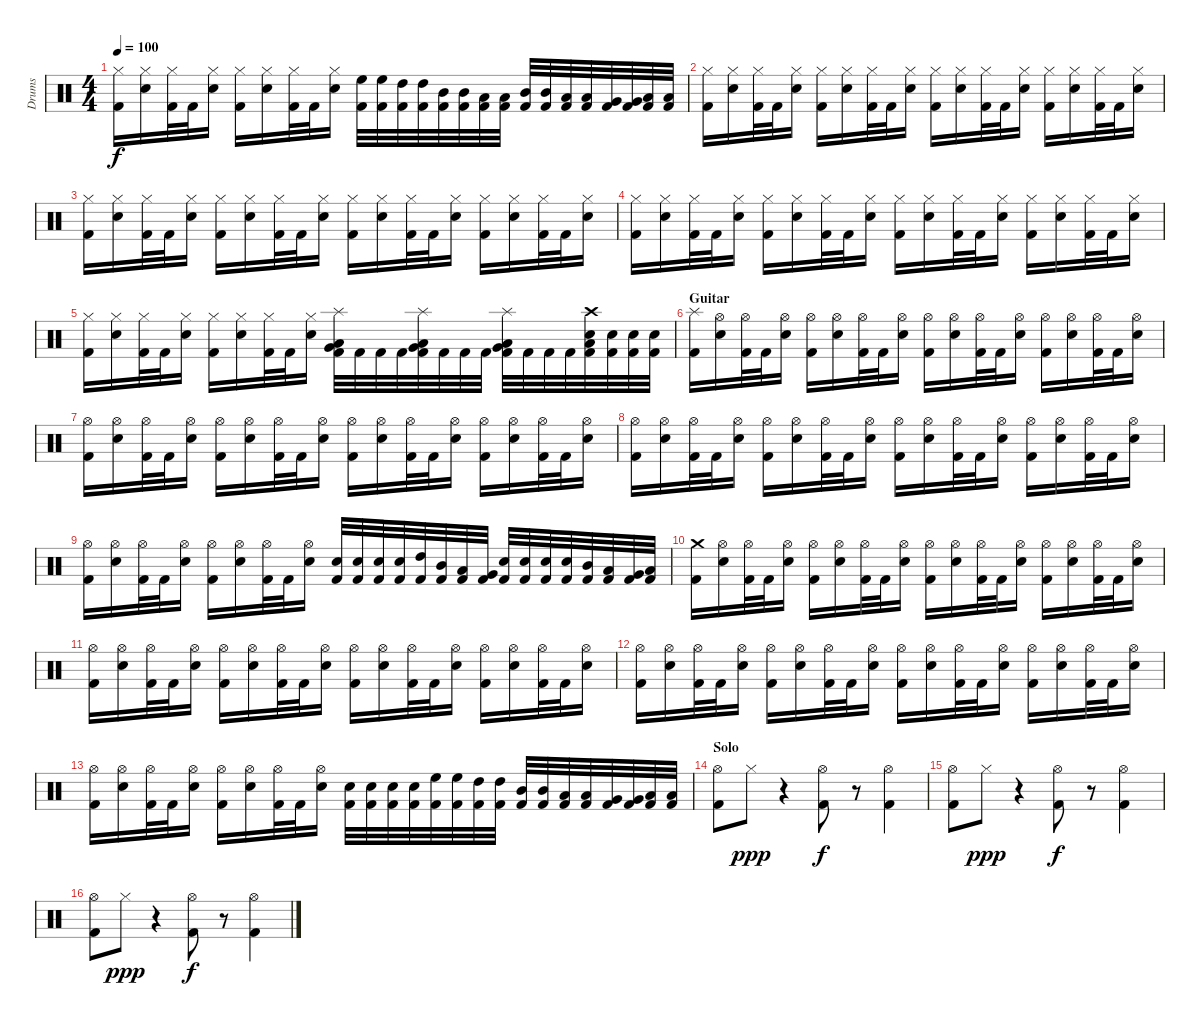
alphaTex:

\track ("Drums" "Drums") {instrument percussion}
\staff {score}
\articulation defaults
\ts (4 4)
\tempo 100
\clef neutral
\ks c
("Kick (hit) 2" "Hi-Hat (closed)").16{dy f} ("Electric Snare (hit)" "Hi-Hat (closed)").16 ("Kick (hit) 2" "Hi-Hat (closed)").32 "Kick (hit) 2".32 ("Electric Snare (hit)" "Hi-Hat (closed)").16 ("Kick (hit) 2" "Hi-Hat (closed)").16 ("Electric Snare (hit)" "Hi-Hat (closed)").16 ("Kick (hit) 2" "Hi-Hat (closed)").32 "Kick (hit) 2".32 ("Electric Snare (hit)" "Hi-Hat (closed)").16 ("Kick (hit) 2" "High Floor Tom (hit)").32 ("Kick (hit) 2" "High Floor Tom (hit)").32 ("Kick (hit) 2" "High Tom (hit)").32 ("Kick (hit) 2" "High Tom (hit)").32 ("Kick (hit) 2" "Mid Tom (hit)").32 ("Kick (hit) 2" "Mid Tom (hit)").32 ("Kick (hit) 2" "Low Tom (hit)").32 ("Kick (hit) 2" "Low Tom (hit)").32 ("Kick (hit) 2" "Mid Tom (hit)").32 ("Kick (hit) 2" "Mid Tom (hit)").32 ("Kick (hit) 2" "Low Tom (hit)").32 ("Kick (hit) 2" "Low Tom (hit)").32 ("Kick (hit) 2" "Very Low Tom (hit)").32 ("Kick (hit) 2" "Very Low Tom (hit)").32 ("Kick (hit) 2" "Low Floor Tom (hit)").32 ("Kick (hit) 2" "Low Floor Tom (hit)").32 |
("Kick (hit) 2" "Hi-Hat (closed)").16 ("Electric Snare (hit)" "Hi-Hat (closed)").16 ("Kick (hit) 2" "Hi-Hat (closed)").32 "Kick (hit) 2".32 ("Electric Snare (hit)" "Hi-Hat (closed)").16 ("Kick (hit) 2" "Hi-Hat (closed)").16 ("Electric Snare (hit)" "Hi-Hat (closed)").16 ("Kick (hit) 2" "Hi-Hat (closed)").32 "Kick (hit) 2".32 ("Electric Snare (hit)" "Hi-Hat (closed)").16 ("Kick (hit) 2" "Hi-Hat (closed)").16 ("Electric Snare (hit)" "Hi-Hat (closed)").16 ("Kick (hit) 2" "Hi-Hat (closed)").32 "Kick (hit) 2".32 ("Electric Snare (hit)" "Hi-Hat (closed)").16 ("Kick (hit) 2" "Hi-Hat (closed)").16 ("Electric Snare (hit)" "Hi-Hat (closed)").16 ("Kick (hit) 2" "Hi-Hat (closed)").32 "Kick (hit) 2".32 ("Electric Snare (hit)" "Hi-Hat (closed)").16 |
("Kick (hit) 2" "Hi-Hat (closed)").16 ("Electric Snare (hit)" "Hi-Hat (closed)").16 ("Kick (hit) 2" "Hi-Hat (closed)").32 "Kick (hit) 2".32 ("Electric Snare (hit)" "Hi-Hat (closed)").16 ("Kick (hit) 2" "Hi-Hat (closed)").16 ("Electric Snare (hit)" "Hi-Hat (closed)").16 ("Kick (hit) 2" "Hi-Hat (closed)").32 "Kick (hit) 2".32 ("Electric Snare (hit)" "Hi-Hat (closed)").16 ("Kick (hit) 2" "Hi-Hat (closed)").16 ("Electric Snare (hit)" "Hi-Hat (closed)").16 ("Kick (hit) 2" "Hi-Hat (closed)").32 "Kick (hit) 2".32 ("Electric Snare (hit)" "Hi-Hat (closed)").16 ("Kick (hit) 2" "Hi-Hat (closed)").16 ("Electric Snare (hit)" "Hi-Hat (closed)").16 ("Kick (hit) 2" "Hi-Hat (closed)").32 "Kick (hit) 2".32 ("Electric Snare (hit)" "Hi-Hat (closed)").16 |
("Kick (hit) 2" "Hi-Hat (closed)").16 ("Electric Snare (hit)" "Hi-Hat (closed)").16 ("Kick (hit) 2" "Hi-Hat (closed)").32 "Kick (hit) 2".32 ("Electric Snare (hit)" "Hi-Hat (closed)").16 ("Kick (hit) 2" "Hi-Hat (closed)").16 ("Electric Snare (hit)" "Hi-Hat (closed)").16 ("Kick (hit) 2" "Hi-Hat (closed)").32 "Kick (hit) 2".32 ("Electric Snare (hit)" "Hi-Hat (closed)").16 ("Kick (hit) 2" "Hi-Hat (closed)").16 ("Electric Snare (hit)" "Hi-Hat (closed)").16 ("Kick (hit) 2" "Hi-Hat (closed)").32 "Kick (hit) 2".32 ("Electric Snare (hit)" "Hi-Hat (closed)").16 ("Kick (hit) 2" "Hi-Hat (closed)").16 ("Electric Snare (hit)" "Hi-Hat (closed)").16 ("Kick (hit) 2" "Hi-Hat (closed)").32 "Kick (hit) 2".32 ("Electric Snare (hit)" "Hi-Hat (closed)").16 |
("Kick (hit) 2" "Hi-Hat (closed)").16 ("Electric Snare (hit)" "Hi-Hat (closed)").16 ("Kick (hit) 2" "Hi-Hat (closed)").32 "Kick (hit) 2".32 ("Electric Snare (hit)" "Hi-Hat (closed)").16 ("Kick (hit) 2" "Hi-Hat (closed)").16 ("Electric Snare (hit)" "Hi-Hat (closed)").16 ("Kick (hit) 2" "Hi-Hat (closed)").32 "Kick (hit) 2".32 ("Electric Snare (hit)" "Hi-Hat (closed)").16 ("Kick (hit) 2" "Low Floor Tom (hit)" "Very Low Tom (hit)" "Splash (hit)").32 "Kick (hit) 2".32 "Kick (hit) 2".32 "Kick (hit) 2".32 ("Kick (hit) 2" "Low Floor Tom (hit)" "Very Low Tom (hit)" "Splash (hit)").32 "Kick (hit) 2".32 "Kick (hit) 2".32 "Kick (hit) 2".32 ("Kick (hit) 2" "Low Floor Tom (hit)" "Very Low Tom (hit)" "Splash (hit)").32 "Kick (hit) 2".32 "Kick (hit) 2".32 "Kick (hit) 2".32 ("Kick (hit) 2" "Electric Snare (hit)" "Low Floor Tom (hit)" "Crash high (hit)").32 ("Kick (hit) 2" "Electric Snare (hit)").32 ("Kick (hit) 2" "Electric Snare (hit)").32 ("Kick (hit) 2" "Electric Snare (hit)").32 |
\section ("" "Guitar ")
("Kick (hit) 2" "Splash (hit)").16 ("Electric Snare (hit)" "Hi-Hat (open)").16 ("Kick (hit) 2" "Hi-Hat (open)").32 "Kick (hit) 2".32 ("Electric Snare (hit)" "Hi-Hat (open)").16 ("Kick (hit) 2" "Hi-Hat (open)").16 ("Electric Snare (hit)" "Hi-Hat (open)").16 ("Kick (hit) 2" "Hi-Hat (open)").32 "Kick (hit) 2".32 ("Electric Snare (hit)" "Hi-Hat (open)").16 ("Kick (hit) 2" "Hi-Hat (open)").16 ("Electric Snare (hit)" "Hi-Hat (open)").16 ("Kick (hit) 2" "Hi-Hat (open)").32 "Kick (hit) 2".32 ("Electric Snare (hit)" "Hi-Hat (open)").16 ("Kick (hit) 2" "Hi-Hat (open)").16 ("Electric Snare (hit)" "Hi-Hat (open)").16 ("Kick (hit) 2" "Hi-Hat (open)").32 "Kick (hit) 2".32 ("Electric Snare (hit)" "Hi-Hat (open)").16 |
("Kick (hit) 2" "Hi-Hat (open)").16 ("Electric Snare (hit)" "Hi-Hat (open)").16 ("Kick (hit) 2" "Hi-Hat (open)").32 "Kick (hit) 2".32 ("Electric Snare (hit)" "Hi-Hat (open)").16 ("Kick (hit) 2" "Hi-Hat (open)").16 ("Electric Snare (hit)" "Hi-Hat (open)").16 ("Kick (hit) 2" "Hi-Hat (open)").32 "Kick (hit) 2".32 ("Electric Snare (hit)" "Hi-Hat (open)").16 ("Kick (hit) 2" "Hi-Hat (open)").16 ("Electric Snare (hit)" "Hi-Hat (open)").16 ("Kick (hit) 2" "Hi-Hat (open)").32 "Kick (hit) 2".32 ("Electric Snare (hit)" "Hi-Hat (open)").16 ("Kick (hit) 2" "Hi-Hat (open)").16 ("Electric Snare (hit)" "Hi-Hat (open)").16 ("Kick (hit) 2" "Hi-Hat (open)").32 "Kick (hit) 2".32 ("Electric Snare (hit)" "Hi-Hat (open)").16 |
("Kick (hit) 2" "Hi-Hat (open)").16 ("Electric Snare (hit)" "Hi-Hat (open)").16 ("Kick (hit) 2" "Hi-Hat (open)").32 "Kick (hit) 2".32 ("Electric Snare (hit)" "Hi-Hat (open)").16 ("Kick (hit) 2" "Hi-Hat (open)").16 ("Electric Snare (hit)" "Hi-Hat (open)").16 ("Kick (hit) 2" "Hi-Hat (open)").32 "Kick (hit) 2".32 ("Electric Snare (hit)" "Hi-Hat (open)").16 ("Kick (hit) 2" "Hi-Hat (open)").16 ("Electric Snare (hit)" "Hi-Hat (open)").16 ("Kick (hit) 2" "Hi-Hat (open)").32 "Kick (hit) 2".32 ("Electric Snare (hit)" "Hi-Hat (open)").16 ("Kick (hit) 2" "Hi-Hat (open)").16 ("Electric Snare (hit)" "Hi-Hat (open)").16 ("Kick (hit) 2" "Hi-Hat (open)").32 "Kick (hit) 2".32 ("Electric Snare (hit)" "Hi-Hat (open)").16 |
("Kick (hit) 2" "Hi-Hat (open)").16 ("Electric Snare (hit)" "Hi-Hat (open)").16 ("Kick (hit) 2" "Hi-Hat (open)").32 "Kick (hit) 2".32 ("Electric Snare (hit)" "Hi-Hat (open)").16 ("Kick (hit) 2" "Hi-Hat (open)").16 ("Electric Snare (hit)" "Hi-Hat (open)").16 ("Kick (hit) 2" "Hi-Hat (open)").32 "Kick (hit) 2".32 ("Electric Snare (hit)" "Hi-Hat (open)").16 ("Kick (hit) 2" "Electric Snare (hit)").32 ("Kick (hit) 2" "Electric Snare (hit)").32 ("Kick (hit) 2" "Electric Snare (hit)").32 ("Kick (hit) 2" "Electric Snare (hit)").32 ("Kick (hit) 2" "High Tom (hit)").32 ("Kick (hit) 2" "Mid Tom (hit)").32 ("Kick (hit) 2" "Low Tom (hit)").32 ("Kick (hit) 2" "Very Low Tom (hit)").32 ("Kick (hit) 2" "Electric Snare (hit)").32 ("Kick (hit) 2" "Electric Snare (hit)").32 ("Kick (hit) 2" "Electric Snare (hit)").32 ("Kick (hit) 2" "Electric Snare (hit)").32 ("Kick (hit) 2" "Mid Tom (hit)").32 ("Kick (hit) 2" "Low Tom (hit)").32 ("Kick (hit) 2" "Very Low Tom (hit)").32 ("Kick (hit) 2" "Low Floor Tom (hit)").32 |
("Kick (hit) 2" "Crash medium (hit)").16 ("Electric Snare (hit)" "Hi-Hat (open)").16 ("Kick (hit) 2" "Hi-Hat (open)").32 "Kick (hit) 2".32 ("Electric Snare (hit)" "Hi-Hat (open)").16 ("Kick (hit) 2" "Hi-Hat (open)").16 ("Electric Snare (hit)" "Hi-Hat (open)").16 ("Kick (hit) 2" "Hi-Hat (open)").32 "Kick (hit) 2".32 ("Electric Snare (hit)" "Hi-Hat (open)").16 ("Kick (hit) 2" "Hi-Hat (open)").16 ("Electric Snare (hit)" "Hi-Hat (open)").16 ("Kick (hit) 2" "Hi-Hat (open)").32 "Kick (hit) 2".32 ("Electric Snare (hit)" "Hi-Hat (open)").16 ("Kick (hit) 2" "Hi-Hat (open)").16 ("Electric Snare (hit)" "Hi-Hat (open)").16 ("Kick (hit) 2" "Hi-Hat (open)").32 "Kick (hit) 2".32 ("Electric Snare (hit)" "Hi-Hat (open)").16 |
("Kick (hit) 2" "Hi-Hat (open)").16 ("Electric Snare (hit)" "Hi-Hat (open)").16 ("Kick (hit) 2" "Hi-Hat (open)").32 "Kick (hit) 2".32 ("Electric Snare (hit)" "Hi-Hat (open)").16 ("Kick (hit) 2" "Hi-Hat (open)").16 ("Electric Snare (hit)" "Hi-Hat (open)").16 ("Kick (hit) 2" "Hi-Hat (open)").32 "Kick (hit) 2".32 ("Electric Snare (hit)" "Hi-Hat (open)").16 ("Kick (hit) 2" "Hi-Hat (open)").16 ("Electric Snare (hit)" "Hi-Hat (open)").16 ("Kick (hit) 2" "Hi-Hat (open)").32 "Kick (hit) 2".32 ("Electric Snare (hit)" "Hi-Hat (open)").16 ("Kick (hit) 2" "Hi-Hat (open)").16 ("Electric Snare (hit)" "Hi-Hat (open)").16 ("Kick (hit) 2" "Hi-Hat (open)").32 "Kick (hit) 2".32 ("Electric Snare (hit)" "Hi-Hat (open)").16 |
("Kick (hit) 2" "Hi-Hat (open)").16 ("Electric Snare (hit)" "Hi-Hat (open)").16 ("Kick (hit) 2" "Hi-Hat (open)").32 "Kick (hit) 2".32 ("Electric Snare (hit)" "Hi-Hat (open)").16 ("Kick (hit) 2" "Hi-Hat (open)").16 ("Electric Snare (hit)" "Hi-Hat (open)").16 ("Kick (hit) 2" "Hi-Hat (open)").32 "Kick (hit) 2".32 ("Electric Snare (hit)" "Hi-Hat (open)").16 ("Kick (hit) 2" "Hi-Hat (open)").16 ("Electric Snare (hit)" "Hi-Hat (open)").16 ("Kick (hit) 2" "Hi-Hat (open)").32 "Kick (hit) 2".32 ("Electric Snare (hit)" "Hi-Hat (open)").16 ("Kick (hit) 2" "Hi-Hat (open)").16 ("Electric Snare (hit)" "Hi-Hat (open)").16 ("Kick (hit) 2" "Hi-Hat (open)").32 "Kick (hit) 2".32 ("Electric Snare (hit)" "Hi-Hat (open)").16 |
("Kick (hit) 2" "Hi-Hat (open)").16 ("Electric Snare (hit)" "Hi-Hat (open)").16 ("Kick (hit) 2" "Hi-Hat (open)").32 "Kick (hit) 2".32 ("Electric Snare (hit)" "Hi-Hat (open)").16 ("Kick (hit) 2" "Hi-Hat (open)").16 ("Electric Snare (hit)" "Hi-Hat (open)").16 ("Kick (hit) 2" "Hi-Hat (open)").32 "Kick (hit) 2".32 ("Electric Snare (hit)" "Hi-Hat (open)").16 ("Kick (hit) 2" "Electric Snare (hit)").32 ("Kick (hit) 2" "Electric Snare (hit)").32 ("Kick (hit) 2" "Electric Snare (hit)").32 ("Kick (hit) 2" "Electric Snare (hit)").32 ("Kick (hit) 2" "High Floor Tom (hit)").32 ("Kick (hit) 2" "High Floor Tom (hit)").32 ("Kick (hit) 2" "High Tom (hit)").32 ("Kick (hit) 2" "High Tom (hit)").32 ("Kick (hit) 2" "Mid Tom (hit)").32 ("Kick (hit) 2" "Mid Tom (hit)").32 ("Kick (hit) 2" "Low Tom (hit)").32 ("Kick (hit) 2" "Low Tom (hit)").32 ("Kick (hit) 2" "Very Low Tom (hit)").32 ("Kick (hit) 2" "Very Low Tom (hit)").32 ("Kick (hit) 2" "Low Floor Tom (hit)").32 ("Kick (hit) 2" "Low Floor Tom (hit)").32 |
\section ("" "Solo")
("Kick (hit) 2" "Hi-Hat (open)").8 "Hi-Hat (closed)".8{dy ppp} r.4 ("Kick (hit) 2" "Hi-Hat (open)").8{dy f} r.8 ("Kick (hit) 2" "Hi-Hat (open)").4 |
("Kick (hit) 2" "Hi-Hat (open)").8 "Hi-Hat (closed)".8{dy ppp} r.4 ("Kick (hit) 2" "Hi-Hat (open)").8{dy f} r.8 ("Kick (hit) 2" "Hi-Hat (open)").4 |
("Kick (hit) 2" "Hi-Hat (open)").8 "Hi-Hat (closed)".8{dy ppp} r.4 ("Kick (hit) 2" "Hi-Hat (open)").8{dy f} r.8 ("Kick (hit) 2" "Hi-Hat (open)").4
